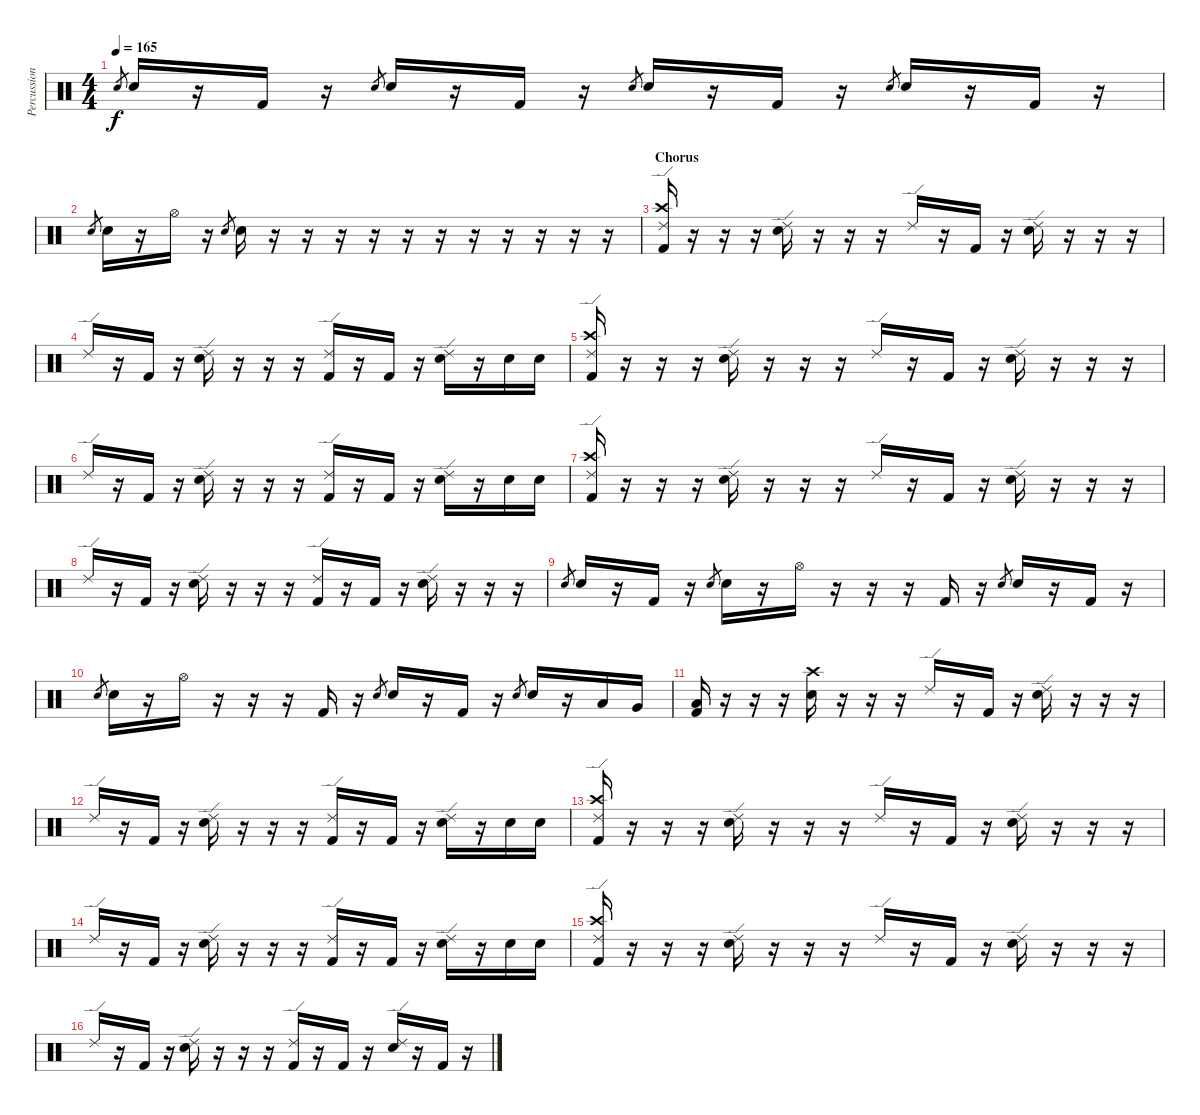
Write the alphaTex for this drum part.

\track ("Percussion" "Percussion") {instrument percussion}
\staff {score}
\articulation defaults
\ts (4 4)
\tempo 165
\clef neutral
\ks c "Snare (hit) 2".8{gr dy f} "Snare (hit) 2".16
r.16 "Kick (hit) 2".16 r.16 "Snare (hit) 2".8{gr} "Snare (hit) 2".16 r.16 "Kick (hit) 2".16 r.16 "Snare (hit) 2".8{gr} "Snare (hit) 2".16 r.16 "Kick (hit) 2".16 r.16 "Snare (hit) 2".8{gr} "Snare (hit) 2".16 r.16 "Kick (hit) 2".16 r.16 |
"Snare (hit) 2".8{gr} "Snare (hit) 2".16 r.16 "Hi-Hat (open)".16 r.16 "Snare (hit) 2".8{gr} "Snare (hit) 2".16 r.16 r.16 r.16 r.16 r.16 r.16 r.16 r.16 r.16 r.16 r.16 |
\section ("" "Chorus")
("Crash high (hit)" "Ride (edge) 2" "Kick (hit) 2").16 r.16 r.16 r.16 ("Ride (edge) 2" "Snare (hit) 2").16 r.16 r.16 r.16 "Ride (edge) 2".16 r.16 "Kick (hit) 2".16 r.16 ("Ride (edge) 2" "Snare (hit) 2").16 r.16 r.16 r.16 |
"Ride (edge) 2".16 r.16 "Kick (hit) 2".16 r.16 ("Ride (edge) 2" "Snare (hit) 2").16 r.16 r.16 r.16 ("Ride (edge) 2" "Kick (hit) 2").16 r.16 "Kick (hit) 2".16 r.16 ("Ride (edge) 2" "Snare (hit) 2").16 r.16 "Snare (hit) 2".16 "Snare (hit) 2".16 |
("Crash high (hit)" "Ride (edge) 2" "Kick (hit) 2").16 r.16 r.16 r.16 ("Ride (edge) 2" "Snare (hit) 2").16 r.16 r.16 r.16 "Ride (edge) 2".16 r.16 "Kick (hit) 2".16 r.16 ("Ride (edge) 2" "Snare (hit) 2").16 r.16 r.16 r.16 |
"Ride (edge) 2".16 r.16 "Kick (hit) 2".16 r.16 ("Ride (edge) 2" "Snare (hit) 2").16 r.16 r.16 r.16 ("Ride (edge) 2" "Kick (hit) 2").16 r.16 "Kick (hit) 2".16 r.16 ("Ride (edge) 2" "Snare (hit) 2").16 r.16 "Snare (hit) 2".16 "Snare (hit) 2".16 |
("Crash high (hit)" "Ride (edge) 2" "Kick (hit) 2").16 r.16 r.16 r.16 ("Ride (edge) 2" "Snare (hit) 2").16 r.16 r.16 r.16 "Ride (edge) 2".16 r.16 "Kick (hit) 2".16 r.16 ("Ride (edge) 2" "Snare (hit) 2").16 r.16 r.16 r.16 |
"Ride (edge) 2".16 r.16 "Kick (hit) 2".16 r.16 ("Ride (edge) 2" "Snare (hit) 2").16 r.16 r.16 r.16 ("Ride (edge) 2" "Kick (hit) 2").16 r.16 "Kick (hit) 2".16 r.16 ("Ride (edge) 2" "Snare (hit) 2").16 r.16 r.16 r.16 |
"Snare (hit) 2".8{gr} "Snare (hit) 2".16 r.16 "Kick (hit) 2".16 r.16 "Snare (hit) 2".8{gr} "Snare (hit) 2".16 r.16 "Hi-Hat (open)".16 r.16 r.16 r.16 "Kick (hit) 2".16 r.16 "Snare (hit) 2".8{gr} "Snare (hit) 2".16 r.16 "Kick (hit) 2".16 r.16 |
"Snare (hit) 2".8{gr} "Snare (hit) 2".16 r.16 "Hi-Hat (open)".16 r.16 r.16 r.16 "Kick (hit) 2".16 r.16 "Snare (hit) 2".8{gr} "Snare (hit) 2".16 r.16 "Kick (hit) 2".16 r.16 "Snare (hit) 2".8{gr} "Snare (hit) 2".16 r.16 "Low Tom (hit)".16 "Very Low Tom (hit)".16 |
("Low Floor Tom (hit)" "Kick (hit) 2").16 r.16 r.16 r.16 ("Crash high (hit)" "Snare (hit) 2").16 r.16 r.16 r.16 "Ride (edge) 2".16 r.16 "Kick (hit) 2".16 r.16 ("Ride (edge) 2" "Snare (hit) 2").16 r.16 r.16 r.16 |
"Ride (edge) 2".16 r.16 "Kick (hit) 2".16 r.16 ("Ride (edge) 2" "Snare (hit) 2").16 r.16 r.16 r.16 ("Ride (edge) 2" "Kick (hit) 2").16 r.16 "Kick (hit) 2".16 r.16 ("Ride (edge) 2" "Snare (hit) 2").16 r.16 "Snare (hit) 2".16 "Snare (hit) 2".16 |
("Crash high (hit)" "Ride (edge) 2" "Kick (hit) 2").16 r.16 r.16 r.16 ("Ride (edge) 2" "Snare (hit) 2").16 r.16 r.16 r.16 "Ride (edge) 2".16 r.16 "Kick (hit) 2".16 r.16 ("Ride (edge) 2" "Snare (hit) 2").16 r.16 r.16 r.16 |
"Ride (edge) 2".16 r.16 "Kick (hit) 2".16 r.16 ("Ride (edge) 2" "Snare (hit) 2").16 r.16 r.16 r.16 ("Ride (edge) 2" "Kick (hit) 2").16 r.16 "Kick (hit) 2".16 r.16 ("Ride (edge) 2" "Snare (hit) 2").16 r.16 "Snare (hit) 2".16 "Snare (hit) 2".16 |
("Crash high (hit)" "Ride (edge) 2" "Kick (hit) 2").16 r.16 r.16 r.16 ("Ride (edge) 2" "Snare (hit) 2").16 r.16 r.16 r.16 "Ride (edge) 2".16 r.16 "Kick (hit) 2".16 r.16 ("Ride (edge) 2" "Snare (hit) 2").16 r.16 r.16 r.16 |
"Ride (edge) 2".16 r.16 "Kick (hit) 2".16 r.16 ("Ride (edge) 2" "Snare (hit) 2").16 r.16 r.16 r.16 ("Ride (edge) 2" "Kick (hit) 2").16 r.16 "Kick (hit) 2".16 r.16 ("Ride (edge) 2" "Snare (hit) 2").16 r.16 "Kick (hit) 2".16 r.16
